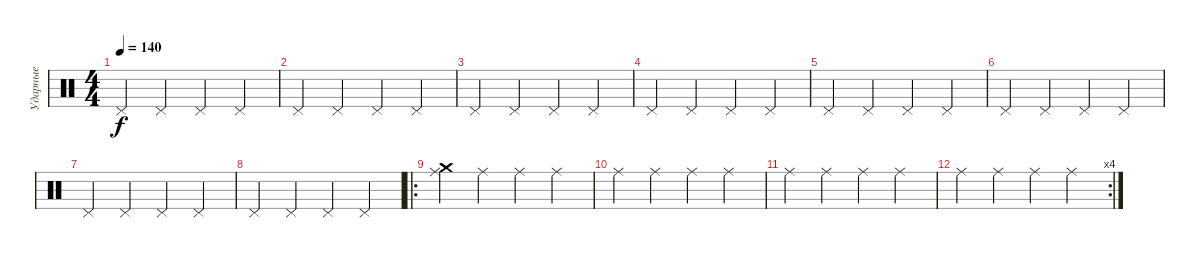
\track ("Ударные" "Ударные") {instrument percussion}
\staff {score}
\articulation defaults
\ts (4 4)
\tempo 140
\clef neutral
\ks c "Pedal Hi-Hat (hit)".4{dy f} "Pedal Hi-Hat (hit)".4 "Pedal Hi-Hat (hit)".4 "Pedal Hi-Hat (hit)".4
|
"Pedal Hi-Hat (hit)".4 "Pedal Hi-Hat (hit)".4 "Pedal Hi-Hat (hit)".4 "Pedal Hi-Hat (hit)".4 |
"Pedal Hi-Hat (hit)".4 "Pedal Hi-Hat (hit)".4 "Pedal Hi-Hat (hit)".4 "Pedal Hi-Hat (hit)".4 |
"Pedal Hi-Hat (hit)".4 "Pedal Hi-Hat (hit)".4 "Pedal Hi-Hat (hit)".4 "Pedal Hi-Hat (hit)".4 |
"Pedal Hi-Hat (hit)".4 "Pedal Hi-Hat (hit)".4 "Pedal Hi-Hat (hit)".4 "Pedal Hi-Hat (hit)".4 |
"Pedal Hi-Hat (hit)".4 "Pedal Hi-Hat (hit)".4 "Pedal Hi-Hat (hit)".4 "Pedal Hi-Hat (hit)".4 |
"Pedal Hi-Hat (hit)".4 "Pedal Hi-Hat (hit)".4 "Pedal Hi-Hat (hit)".4 "Pedal Hi-Hat (hit)".4 |
"Pedal Hi-Hat (hit)".4 "Pedal Hi-Hat (hit)".4 "Pedal Hi-Hat (hit)".4 "Pedal Hi-Hat (hit)".4 |
\ro
("Ride (middle)" "Crash medium (hit)").4 "Ride (middle)".4 "Ride (middle)".4 "Ride (middle)".4 |
"Ride (middle)".4 "Ride (middle)".4 "Ride (middle)".4 "Ride (middle)".4 |
"Ride (middle)".4 "Ride (middle)".4 "Ride (middle)".4 "Ride (middle)".4 |
\rc 4 "Ride (middle)".4 "Ride (middle)".4 "Ride (middle)".4 "Ride (middle)".4
